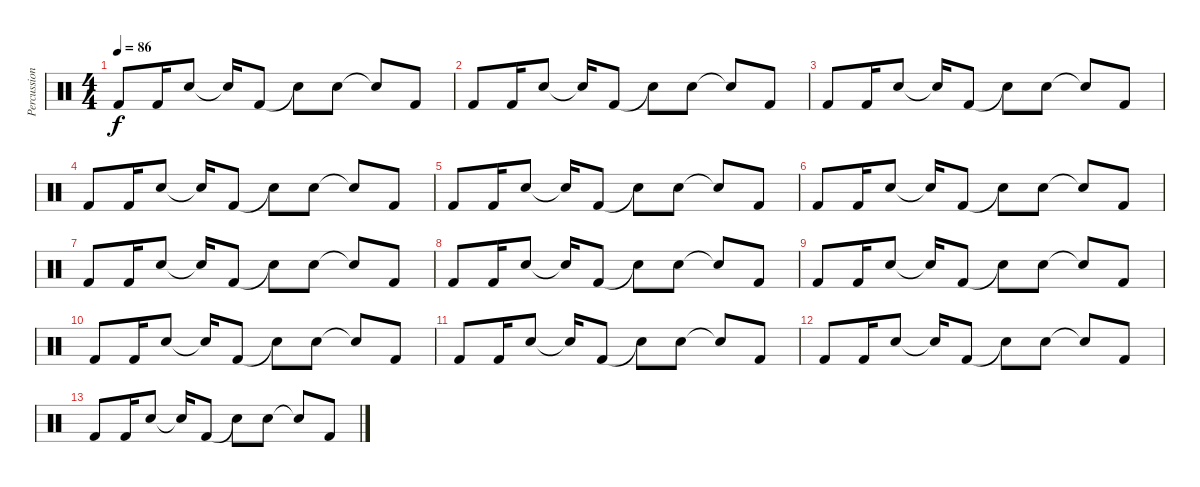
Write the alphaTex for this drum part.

\track ("Percussion" "Percussion") {instrument percussion}
\staff {score}
\articulation defaults
\ts (4 4)
\tempo 86
\clef neutral
\ks c "Kick (hit) 2".8{dy f} "Kick (hit) 2".16 "Snare (hit) 2".8 "Snare (hit)"{t}.16 "Kick (hit) 2".8 "Snare (hit)"{t}.8 "Snare (hit) 2".8 "Snare (hit)"{t}.8 "Kick (hit) 2".8
|
"Kick (hit) 2".8 "Kick (hit) 2".16 "Snare (hit) 2".8 "Snare (hit)"{t}.16 "Kick (hit) 2".8 "Snare (hit)"{t}.8 "Snare (hit) 2".8 "Snare (hit)"{t}.8 "Kick (hit) 2".8 |
"Kick (hit) 2".8 "Kick (hit) 2".16 "Snare (hit) 2".8 "Snare (hit)"{t}.16 "Kick (hit) 2".8 "Snare (hit)"{t}.8 "Snare (hit) 2".8 "Snare (hit)"{t}.8 "Kick (hit) 2".8 |
"Kick (hit) 2".8 "Kick (hit) 2".16 "Snare (hit) 2".8 "Snare (hit)"{t}.16 "Kick (hit) 2".8 "Snare (hit)"{t}.8 "Snare (hit) 2".8 "Snare (hit)"{t}.8 "Kick (hit) 2".8 |
"Kick (hit) 2".8 "Kick (hit) 2".16 "Snare (hit) 2".8 "Snare (hit)"{t}.16 "Kick (hit) 2".8 "Snare (hit)"{t}.8 "Snare (hit) 2".8 "Snare (hit)"{t}.8 "Kick (hit) 2".8 |
"Kick (hit) 2".8 "Kick (hit) 2".16 "Snare (hit) 2".8 "Snare (hit)"{t}.16 "Kick (hit) 2".8 "Snare (hit)"{t}.8 "Snare (hit) 2".8 "Snare (hit)"{t}.8 "Kick (hit) 2".8 |
"Kick (hit) 2".8 "Kick (hit) 2".16 "Snare (hit) 2".8 "Snare (hit)"{t}.16 "Kick (hit) 2".8 "Snare (hit)"{t}.8 "Snare (hit) 2".8 "Snare (hit)"{t}.8 "Kick (hit) 2".8 |
"Kick (hit) 2".8 "Kick (hit) 2".16 "Snare (hit) 2".8 "Snare (hit)"{t}.16 "Kick (hit) 2".8 "Snare (hit)"{t}.8 "Snare (hit) 2".8 "Snare (hit)"{t}.8 "Kick (hit) 2".8 |
"Kick (hit) 2".8 "Kick (hit) 2".16 "Snare (hit) 2".8 "Snare (hit)"{t}.16 "Kick (hit) 2".8 "Snare (hit)"{t}.8 "Snare (hit) 2".8 "Snare (hit)"{t}.8 "Kick (hit) 2".8 |
"Kick (hit) 2".8 "Kick (hit) 2".16 "Snare (hit) 2".8 "Snare (hit)"{t}.16 "Kick (hit) 2".8 "Snare (hit)"{t}.8 "Snare (hit) 2".8 "Snare (hit)"{t}.8 "Kick (hit) 2".8 |
"Kick (hit) 2".8 "Kick (hit) 2".16 "Snare (hit) 2".8 "Snare (hit)"{t}.16 "Kick (hit) 2".8 "Snare (hit)"{t}.8 "Snare (hit) 2".8 "Snare (hit)"{t}.8 "Kick (hit) 2".8 |
"Kick (hit) 2".8 "Kick (hit) 2".16 "Snare (hit) 2".8 "Snare (hit)"{t}.16 "Kick (hit) 2".8 "Snare (hit)"{t}.8 "Snare (hit) 2".8 "Snare (hit)"{t}.8 "Kick (hit) 2".8 |
"Kick (hit) 2".8 "Kick (hit) 2".16 "Snare (hit) 2".8 "Snare (hit)"{t}.16 "Kick (hit) 2".8 "Snare (hit)"{t}.8 "Snare (hit) 2".8 "Snare (hit)"{t}.8 "Kick (hit) 2".8
